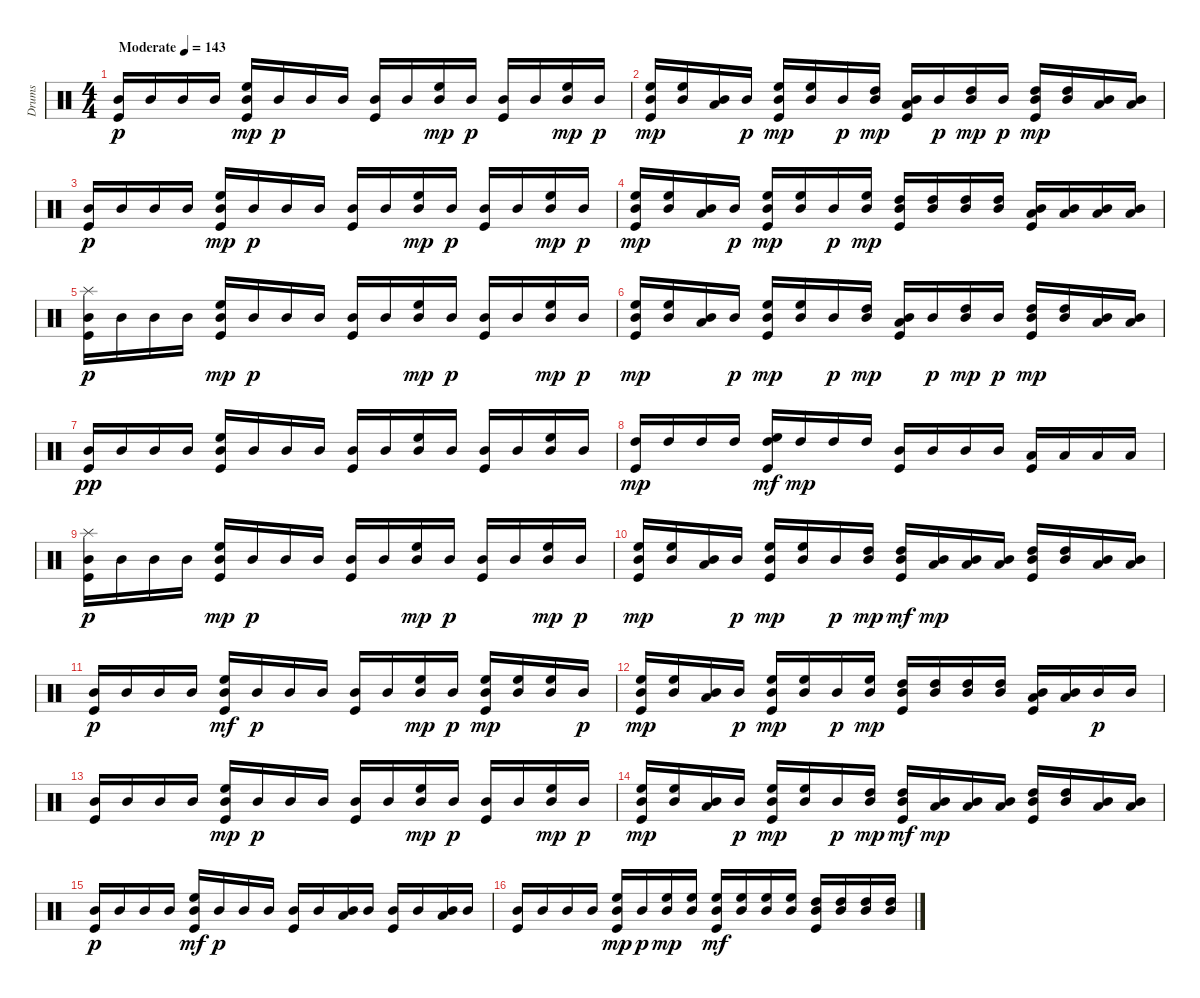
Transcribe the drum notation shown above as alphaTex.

\track ("Drums" "Drums") {instrument percussion}
\staff {score}
\articulation defaults
\ts (4 4)
\tempo (143 "Moderate")
\clef neutral
\ks c
("Kick (hit)" "Mid Tom (hit)").16{dy p} "Mid Tom (hit)".16 "Mid Tom (hit)".16 "Mid Tom (hit)".16 ("Kick (hit)" "Mid Tom (hit)" "High Floor Tom (hit)").16{dy mp} "Mid Tom (hit)".16{dy p} "Mid Tom (hit)".16 "Mid Tom (hit)".16 ("Kick (hit)" "Mid Tom (hit)").16 "Mid Tom (hit)".16 ("Mid Tom (hit)" "High Floor Tom (hit)").16{dy mp} "Mid Tom (hit)".16{dy p} ("Kick (hit)" "Mid Tom (hit)").16 "Mid Tom (hit)".16 ("Mid Tom (hit)" "High Floor Tom (hit)").16{dy mp} "Mid Tom (hit)".16{dy p} |
("Kick (hit)" "Mid Tom (hit)" "High Floor Tom (hit)").16{dy mp} ("Mid Tom (hit)" "High Floor Tom (hit)").16 ("Mid Tom (hit)" "Low Tom (hit)").16 "Mid Tom (hit)".16{dy p} ("Kick (hit)" "Mid Tom (hit)" "High Floor Tom (hit)").16{dy mp} ("Mid Tom (hit)" "High Floor Tom (hit)").16 "Mid Tom (hit)".16{dy p} ("Mid Tom (hit)" "High Tom (hit)").16{dy mp} ("Kick (hit)" "Mid Tom (hit)" "Low Tom (hit)").16 "Mid Tom (hit)".16{dy p} ("Mid Tom (hit)" "High Tom (hit)").16{dy mp} "Mid Tom (hit)".16{dy p} ("Kick (hit)" "Mid Tom (hit)" "High Tom (hit)").16{dy mp} ("Mid Tom (hit)" "High Tom (hit)").16 ("Mid Tom (hit)" "Low Tom (hit)").16 ("Mid Tom (hit)" "Low Tom (hit)").16 |
("Kick (hit)" "Mid Tom (hit)").16{dy p} "Mid Tom (hit)".16 "Mid Tom (hit)".16 "Mid Tom (hit)".16 ("Kick (hit)" "Mid Tom (hit)" "High Floor Tom (hit)").16{dy mp} "Mid Tom (hit)".16{dy p} "Mid Tom (hit)".16 "Mid Tom (hit)".16 ("Kick (hit)" "Mid Tom (hit)").16 "Mid Tom (hit)".16 ("Mid Tom (hit)" "High Floor Tom (hit)").16{dy mp} "Mid Tom (hit)".16{dy p} ("Kick (hit)" "Mid Tom (hit)").16 "Mid Tom (hit)".16 ("Mid Tom (hit)" "High Floor Tom (hit)").16{dy mp} "Mid Tom (hit)".16{dy p} |
("Kick (hit)" "Mid Tom (hit)" "High Floor Tom (hit)").16{dy mp} ("Mid Tom (hit)" "High Floor Tom (hit)").16 ("Mid Tom (hit)" "Low Tom (hit)").16 "Mid Tom (hit)".16{dy p} ("Kick (hit)" "Mid Tom (hit)" "High Floor Tom (hit)").16{dy mp} ("Mid Tom (hit)" "High Floor Tom (hit)").16 "Mid Tom (hit)".16{dy p} ("Mid Tom (hit)" "High Floor Tom (hit)").16{dy mp} ("Kick (hit)" "Mid Tom (hit)" "High Tom (hit)").16 ("Mid Tom (hit)" "High Tom (hit)").16 ("Mid Tom (hit)" "High Tom (hit)").16 ("Mid Tom (hit)" "High Tom (hit)").16 ("Kick (hit)" "Mid Tom (hit)" "Low Tom (hit)").16 ("Mid Tom (hit)" "Low Tom (hit)").16 ("Mid Tom (hit)" "Low Tom (hit)").16 ("Mid Tom (hit)" "Low Tom (hit)").16 |
("Kick (hit)" "Mid Tom (hit)" "Splash (hit)").16{dy p} "Mid Tom (hit)".16 "Mid Tom (hit)".16 "Mid Tom (hit)".16 ("Kick (hit)" "Mid Tom (hit)" "High Floor Tom (hit)").16{dy mp} "Mid Tom (hit)".16{dy p} "Mid Tom (hit)".16 "Mid Tom (hit)".16 ("Kick (hit)" "Mid Tom (hit)").16 "Mid Tom (hit)".16 ("Mid Tom (hit)" "High Floor Tom (hit)").16{dy mp} "Mid Tom (hit)".16{dy p} ("Kick (hit)" "Mid Tom (hit)").16 "Mid Tom (hit)".16 ("Mid Tom (hit)" "High Floor Tom (hit)").16{dy mp} "Mid Tom (hit)".16{dy p} |
("Kick (hit)" "Mid Tom (hit)" "High Floor Tom (hit)").16{dy mp} ("Mid Tom (hit)" "High Floor Tom (hit)").16 ("Mid Tom (hit)" "Low Tom (hit)").16 "Mid Tom (hit)".16{dy p} ("Kick (hit)" "Mid Tom (hit)" "High Floor Tom (hit)").16{dy mp} ("Mid Tom (hit)" "High Floor Tom (hit)").16 "Mid Tom (hit)".16{dy p} ("Mid Tom (hit)" "High Tom (hit)").16{dy mp} ("Kick (hit)" "Mid Tom (hit)" "Low Tom (hit)").16 "Mid Tom (hit)".16{dy p} ("Mid Tom (hit)" "High Tom (hit)").16{dy mp} "Mid Tom (hit)".16{dy p} ("Kick (hit)" "Mid Tom (hit)" "High Tom (hit)").16{dy mp} ("Mid Tom (hit)" "High Tom (hit)").16 ("Mid Tom (hit)" "Low Tom (hit)").16 ("Mid Tom (hit)" "Low Tom (hit)").16 |
("Kick (hit)" "Mid Tom (hit)").16{dy pp} "Mid Tom (hit)".16 "Mid Tom (hit)".16 "Mid Tom (hit)".16 ("Kick (hit)" "Mid Tom (hit)" "High Floor Tom (hit)").16 "Mid Tom (hit)".16 "Mid Tom (hit)".16 "Mid Tom (hit)".16 ("Kick (hit)" "Mid Tom (hit)").16 "Mid Tom (hit)".16 ("Mid Tom (hit)" "High Floor Tom (hit)").16 "Mid Tom (hit)".16 ("Kick (hit)" "Mid Tom (hit)").16 "Mid Tom (hit)".16 ("Mid Tom (hit)" "High Floor Tom (hit)").16 "Mid Tom (hit)".16 |
("Kick (hit)" "High Tom (hit)").16{dy mp} "High Tom (hit)".16 "High Tom (hit)".16 "High Tom (hit)".16 ("Kick (hit)" "High Tom (hit)" "High Floor Tom (hit)").16{dy mf} "High Tom (hit)".16{dy mp} "High Tom (hit)".16 "High Tom (hit)".16 ("Kick (hit)" "Mid Tom (hit)").16 "Mid Tom (hit)".16 "Mid Tom (hit)".16 "Mid Tom (hit)".16 ("Kick (hit)" "Low Tom (hit)").16 "Low Tom (hit)".16 "Low Tom (hit)".16 "Low Tom (hit)".16 |
("Kick (hit)" "Mid Tom (hit)" "Splash (hit)").16{dy p} "Mid Tom (hit)".16 "Mid Tom (hit)".16 "Mid Tom (hit)".16 ("Kick (hit)" "Mid Tom (hit)" "High Floor Tom (hit)").16{dy mp} "Mid Tom (hit)".16{dy p} "Mid Tom (hit)".16 "Mid Tom (hit)".16 ("Kick (hit)" "Mid Tom (hit)").16 "Mid Tom (hit)".16 ("Mid Tom (hit)" "High Floor Tom (hit)").16{dy mp} "Mid Tom (hit)".16{dy p} ("Kick (hit)" "Mid Tom (hit)").16 "Mid Tom (hit)".16 ("Mid Tom (hit)" "High Floor Tom (hit)").16{dy mp} "Mid Tom (hit)".16{dy p} |
("Kick (hit)" "Mid Tom (hit)" "High Floor Tom (hit)").16{dy mp} ("Mid Tom (hit)" "High Floor Tom (hit)").16 ("Mid Tom (hit)" "Low Tom (hit)").16 "Mid Tom (hit)".16{dy p} ("Kick (hit)" "Mid Tom (hit)" "High Floor Tom (hit)").16{dy mp} ("Mid Tom (hit)" "High Floor Tom (hit)").16 "Mid Tom (hit)".16{dy p} ("Mid Tom (hit)" "High Tom (hit)").16{dy mp} ("Kick (hit)" "Mid Tom (hit)" "High Tom (hit)").16{dy mf} ("Mid Tom (hit)" "Low Tom (hit)").16{dy mp} ("Mid Tom (hit)" "Low Tom (hit)").16 ("Mid Tom (hit)" "Low Tom (hit)").16 ("Kick (hit)" "Mid Tom (hit)" "High Tom (hit)").16 ("Mid Tom (hit)" "High Tom (hit)").16 ("Mid Tom (hit)" "Low Tom (hit)").16 ("Mid Tom (hit)" "Low Tom (hit)").16 |
("Kick (hit)" "Mid Tom (hit)").16{dy p} "Mid Tom (hit)".16 "Mid Tom (hit)".16 "Mid Tom (hit)".16 ("Kick (hit)" "Mid Tom (hit)" "High Floor Tom (hit)").16{dy mf} "Mid Tom (hit)".16{dy p} "Mid Tom (hit)".16 "Mid Tom (hit)".16 ("Kick (hit)" "Mid Tom (hit)").16 "Mid Tom (hit)".16 ("Mid Tom (hit)" "High Floor Tom (hit)").16{dy mp} "Mid Tom (hit)".16{dy p} ("Kick (hit)" "Mid Tom (hit)" "High Floor Tom (hit)").16{dy mp} ("Mid Tom (hit)" "High Floor Tom (hit)").16 ("Mid Tom (hit)" "High Floor Tom (hit)").16 "Mid Tom (hit)".16{dy p} |
("Kick (hit)" "Mid Tom (hit)" "High Floor Tom (hit)").16{dy mp} ("Mid Tom (hit)" "High Floor Tom (hit)").16 ("Mid Tom (hit)" "Low Tom (hit)").16 "Mid Tom (hit)".16{dy p} ("Kick (hit)" "Mid Tom (hit)" "High Floor Tom (hit)").16{dy mp} ("Mid Tom (hit)" "High Floor Tom (hit)").16 "Mid Tom (hit)".16{dy p} ("Mid Tom (hit)" "High Floor Tom (hit)").16{dy mp} ("Kick (hit)" "Mid Tom (hit)" "High Tom (hit)").16 ("Mid Tom (hit)" "High Tom (hit)").16 ("Mid Tom (hit)" "High Tom (hit)").16 ("Mid Tom (hit)" "High Tom (hit)").16 ("Kick (hit)" "Mid Tom (hit)" "Low Tom (hit)").16 ("Mid Tom (hit)" "Low Tom (hit)").16 "Mid Tom (hit)".16{dy p} "Mid Tom (hit)".16 |
("Kick (hit)" "Mid Tom (hit)").16 "Mid Tom (hit)".16 "Mid Tom (hit)".16 "Mid Tom (hit)".16 ("Kick (hit)" "Mid Tom (hit)" "High Floor Tom (hit)").16{dy mp} "Mid Tom (hit)".16{dy p} "Mid Tom (hit)".16 "Mid Tom (hit)".16 ("Kick (hit)" "Mid Tom (hit)").16 "Mid Tom (hit)".16 ("Mid Tom (hit)" "High Floor Tom (hit)").16{dy mp} "Mid Tom (hit)".16{dy p} ("Kick (hit)" "Mid Tom (hit)").16 "Mid Tom (hit)".16 ("Mid Tom (hit)" "High Floor Tom (hit)").16{dy mp} "Mid Tom (hit)".16{dy p} |
("Kick (hit)" "Mid Tom (hit)" "High Floor Tom (hit)").16{dy mp} ("Mid Tom (hit)" "High Floor Tom (hit)").16 ("Mid Tom (hit)" "Low Tom (hit)").16 "Mid Tom (hit)".16{dy p} ("Kick (hit)" "Mid Tom (hit)" "High Floor Tom (hit)").16{dy mp} ("Mid Tom (hit)" "High Floor Tom (hit)").16 "Mid Tom (hit)".16{dy p} ("Mid Tom (hit)" "High Tom (hit)").16{dy mp} ("Kick (hit)" "Mid Tom (hit)" "High Tom (hit)").16{dy mf} ("Mid Tom (hit)" "Low Tom (hit)").16{dy mp} ("Mid Tom (hit)" "Low Tom (hit)").16 ("Mid Tom (hit)" "Low Tom (hit)").16 ("Kick (hit)" "Mid Tom (hit)" "High Tom (hit)").16 ("Mid Tom (hit)" "High Tom (hit)").16 ("Mid Tom (hit)" "Low Tom (hit)").16 ("Mid Tom (hit)" "Low Tom (hit)").16 |
("Kick (hit)" "Mid Tom (hit)").16{dy p} "Mid Tom (hit)".16 "Mid Tom (hit)".16 "Mid Tom (hit)".16 ("Kick (hit)" "Mid Tom (hit)" "High Floor Tom (hit)").16{dy mf} "Mid Tom (hit)".16{dy p} "Mid Tom (hit)".16 "Mid Tom (hit)".16 ("Kick (hit)" "Mid Tom (hit)").16 "Mid Tom (hit)".16 ("Mid Tom (hit)" "Low Tom (hit)").16 "Mid Tom (hit)".16 ("Kick (hit)" "Mid Tom (hit)").16 "Mid Tom (hit)".16 ("Mid Tom (hit)" "Low Tom (hit)").16 "Mid Tom (hit)".16 |
("Kick (hit)" "Mid Tom (hit)").16 "Mid Tom (hit)".16 "Mid Tom (hit)".16 "Mid Tom (hit)".16 ("Kick (hit)" "Mid Tom (hit)" "High Floor Tom (hit)").16{dy mp} "Mid Tom (hit)".16{dy p} ("Mid Tom (hit)" "High Floor Tom (hit)").16{dy mp} ("Mid Tom (hit)" "High Floor Tom (hit)").16 ("Kick (hit)" "Mid Tom (hit)" "High Floor Tom (hit)").16{dy mf} ("Mid Tom (hit)" "High Floor Tom (hit)").16 ("Mid Tom (hit)" "High Floor Tom (hit)").16 ("Mid Tom (hit)" "High Floor Tom (hit)").16 ("Kick (hit)" "Mid Tom (hit)" "High Tom (hit)").16 ("Mid Tom (hit)" "High Tom (hit)").16 ("Mid Tom (hit)" "High Tom (hit)").16 ("Mid Tom (hit)" "High Tom (hit)").16
